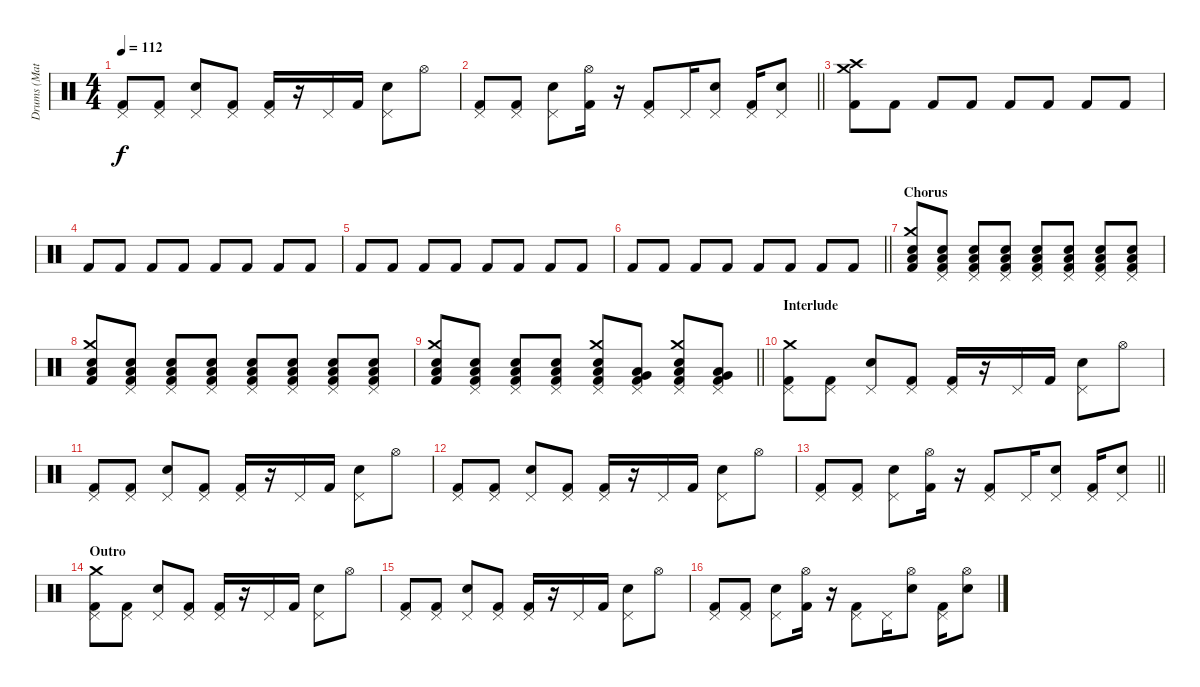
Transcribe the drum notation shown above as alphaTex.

\track ("Drums (Matt)" "Drums (Mat") {instrument percussion}
\staff {score}
\articulation defaults
\ts (4 4)
\tempo 112
\clef neutral
\ks c
("Pedal Hi-Hat (hit)" "Kick (hit) 2").8{dy f} ("Pedal Hi-Hat (hit)" "Kick (hit) 2").8 ("Pedal Hi-Hat (hit)" "Electric Snare (hit)").8 ("Pedal Hi-Hat (hit)" "Kick (hit) 2").8 ("Pedal Hi-Hat (hit)" "Kick (hit) 2").16 r.16 "Pedal Hi-Hat (hit)".16 "Kick (hit) 2".16 ("Pedal Hi-Hat (hit)" "Electric Snare (hit)").8 "Hi-Hat (open)".8 |
\barLineRight lightlight
("Pedal Hi-Hat (hit)" "Kick (hit) 2").8 ("Pedal Hi-Hat (hit)" "Kick (hit) 2").8 ("Pedal Hi-Hat (hit)" "Electric Snare (hit)").8 ("Hi-Hat (open)" "Kick (hit) 2").16 r.16 ("Pedal Hi-Hat (hit)" "Kick (hit) 2").8 "Pedal Hi-Hat (hit)".16 ("Pedal Hi-Hat (hit)" "Electric Snare (hit)").8 ("Pedal Hi-Hat (hit)" "Kick (hit) 2").16 ("Pedal Hi-Hat (hit)" "Electric Snare (hit)").8 |
("Crash high (hit)" "Crash medium (hit)" "Kick (hit) 2").8 "Kick (hit) 2".8 "Kick (hit) 2".8 "Kick (hit) 2".8 "Kick (hit) 2".8 "Kick (hit) 2".8 "Kick (hit) 2".8 "Kick (hit) 2".8 |
"Kick (hit) 2".8 "Kick (hit) 2".8 "Kick (hit) 2".8 "Kick (hit) 2".8 "Kick (hit) 2".8 "Kick (hit) 2".8 "Kick (hit) 2".8 "Kick (hit) 2".8 |
"Kick (hit) 2".8 "Kick (hit) 2".8 "Kick (hit) 2".8 "Kick (hit) 2".8 "Kick (hit) 2".8 "Kick (hit) 2".8 "Kick (hit) 2".8 "Kick (hit) 2".8 |
\barLineRight lightlight "Kick (hit) 2".8 "Kick (hit) 2".8 "Kick (hit) 2".8 "Kick (hit) 2".8 "Kick (hit) 2".8 "Kick (hit) 2".8 "Kick (hit) 2".8 "Kick (hit) 2".8
|
\section ("" "Chorus")
("Crash medium (hit)" "Low Floor Tom (hit)" "Electric Snare (hit)" "Kick (hit) 2").8 ("Pedal Hi-Hat (hit)" "Low Floor Tom (hit)" "Electric Snare (hit)" "Kick (hit) 2").8 ("Pedal Hi-Hat (hit)" "Low Floor Tom (hit)" "Electric Snare (hit)" "Kick (hit) 2").8 ("Pedal Hi-Hat (hit)" "Low Floor Tom (hit)" "Electric Snare (hit)" "Kick (hit) 2").8 ("Pedal Hi-Hat (hit)" "Low Floor Tom (hit)" "Electric Snare (hit)" "Kick (hit) 2").8 ("Pedal Hi-Hat (hit)" "Low Floor Tom (hit)" "Electric Snare (hit)" "Kick (hit) 2").8 ("Pedal Hi-Hat (hit)" "Low Floor Tom (hit)" "Electric Snare (hit)" "Kick (hit) 2").8 ("Pedal Hi-Hat (hit)" "Low Floor Tom (hit)" "Electric Snare (hit)" "Kick (hit) 2").8 |
("Crash medium (hit)" "Low Floor Tom (hit)" "Electric Snare (hit)" "Kick (hit) 2").8 ("Pedal Hi-Hat (hit)" "Low Floor Tom (hit)" "Electric Snare (hit)" "Kick (hit) 2").8 ("Pedal Hi-Hat (hit)" "Low Floor Tom (hit)" "Electric Snare (hit)" "Kick (hit) 2").8 ("Pedal Hi-Hat (hit)" "Low Floor Tom (hit)" "Electric Snare (hit)" "Kick (hit) 2").8 ("Pedal Hi-Hat (hit)" "Low Floor Tom (hit)" "Electric Snare (hit)" "Kick (hit) 2").8 ("Pedal Hi-Hat (hit)" "Low Floor Tom (hit)" "Electric Snare (hit)" "Kick (hit) 2").8 ("Pedal Hi-Hat (hit)" "Low Floor Tom (hit)" "Electric Snare (hit)" "Kick (hit) 2").8 ("Pedal Hi-Hat (hit)" "Low Floor Tom (hit)" "Electric Snare (hit)" "Kick (hit) 2").8 |
\barLineRight lightlight
("Crash medium (hit)" "Low Floor Tom (hit)" "Electric Snare (hit)" "Kick (hit) 2").8 ("Pedal Hi-Hat (hit)" "Low Floor Tom (hit)" "Electric Snare (hit)" "Kick (hit) 2").8 ("Pedal Hi-Hat (hit)" "Low Floor Tom (hit)" "Electric Snare (hit)" "Kick (hit) 2").8 ("Pedal Hi-Hat (hit)" "Low Floor Tom (hit)" "Electric Snare (hit)" "Kick (hit) 2").8 ("Crash medium (hit)" "Pedal Hi-Hat (hit)" "Low Floor Tom (hit)" "Electric Snare (hit)" "Kick (hit) 2").8 ("Pedal Hi-Hat (hit)" "Low Floor Tom (hit)" "Very Low Tom (hit)" "Kick (hit) 2").8 ("Crash medium (hit)" "Pedal Hi-Hat (hit)" "Low Floor Tom (hit)" "Electric Snare (hit)" "Kick (hit) 2").8 ("Pedal Hi-Hat (hit)" "Low Floor Tom (hit)" "Very Low Tom (hit)" "Kick (hit) 2").8 |
\section ("" "Interlude")
("Crash medium (hit)" "Pedal Hi-Hat (hit)" "Kick (hit) 2").8 ("Pedal Hi-Hat (hit)" "Kick (hit) 2").8 ("Pedal Hi-Hat (hit)" "Electric Snare (hit)").8 ("Pedal Hi-Hat (hit)" "Kick (hit) 2").8 ("Pedal Hi-Hat (hit)" "Kick (hit) 2").16 r.16 "Pedal Hi-Hat (hit)".16 "Kick (hit) 2".16 ("Pedal Hi-Hat (hit)" "Electric Snare (hit)").8 "Hi-Hat (open)".8 |
("Pedal Hi-Hat (hit)" "Kick (hit) 2").8 ("Pedal Hi-Hat (hit)" "Kick (hit) 2").8 ("Pedal Hi-Hat (hit)" "Electric Snare (hit)").8 ("Pedal Hi-Hat (hit)" "Kick (hit) 2").8 ("Pedal Hi-Hat (hit)" "Kick (hit) 2").16 r.16 "Pedal Hi-Hat (hit)".16 "Kick (hit) 2".16 ("Pedal Hi-Hat (hit)" "Electric Snare (hit)").8 "Hi-Hat (open)".8 |
("Pedal Hi-Hat (hit)" "Kick (hit) 2").8 ("Pedal Hi-Hat (hit)" "Kick (hit) 2").8 ("Pedal Hi-Hat (hit)" "Electric Snare (hit)").8 ("Pedal Hi-Hat (hit)" "Kick (hit) 2").8 ("Pedal Hi-Hat (hit)" "Kick (hit) 2").16 r.16 "Pedal Hi-Hat (hit)".16 "Kick (hit) 2".16 ("Pedal Hi-Hat (hit)" "Electric Snare (hit)").8 "Hi-Hat (open)".8 |
\barLineRight lightlight
("Pedal Hi-Hat (hit)" "Kick (hit) 2").8 ("Pedal Hi-Hat (hit)" "Kick (hit) 2").8 ("Pedal Hi-Hat (hit)" "Electric Snare (hit)").8 ("Hi-Hat (open)" "Kick (hit) 2").16 r.16 ("Pedal Hi-Hat (hit)" "Kick (hit) 2").8 "Pedal Hi-Hat (hit)".16 ("Pedal Hi-Hat (hit)" "Electric Snare (hit)").8 ("Pedal Hi-Hat (hit)" "Kick (hit) 2").16 ("Pedal Hi-Hat (hit)" "Electric Snare (hit)").8 |
\section ("" "Outro")
("Crash medium (hit)" "Pedal Hi-Hat (hit)" "Kick (hit) 2").8 ("Pedal Hi-Hat (hit)" "Kick (hit) 2").8 ("Pedal Hi-Hat (hit)" "Electric Snare (hit)").8 ("Pedal Hi-Hat (hit)" "Kick (hit) 2").8 ("Pedal Hi-Hat (hit)" "Kick (hit) 2").16 r.16 "Pedal Hi-Hat (hit)".16 "Kick (hit) 2".16 ("Pedal Hi-Hat (hit)" "Electric Snare (hit)").8 "Hi-Hat (open)".8 |
("Pedal Hi-Hat (hit)" "Kick (hit) 2").8 ("Pedal Hi-Hat (hit)" "Kick (hit) 2").8 ("Pedal Hi-Hat (hit)" "Electric Snare (hit)").8 ("Pedal Hi-Hat (hit)" "Kick (hit) 2").8 ("Pedal Hi-Hat (hit)" "Kick (hit) 2").16 r.16 "Pedal Hi-Hat (hit)".16 "Kick (hit) 2".16 ("Pedal Hi-Hat (hit)" "Electric Snare (hit)").8 "Hi-Hat (open)".8 |
("Pedal Hi-Hat (hit)" "Kick (hit) 2").8 ("Pedal Hi-Hat (hit)" "Kick (hit) 2").8 ("Pedal Hi-Hat (hit)" "Electric Snare (hit)").8 ("Hi-Hat (open)" "Kick (hit) 2").16 r.16 ("Pedal Hi-Hat (hit)" "Kick (hit) 2").8 "Pedal Hi-Hat (hit)".16 ("Hi-Hat (open)" "Electric Snare (hit)").8 ("Pedal Hi-Hat (hit)" "Kick (hit) 2").16 ("Hi-Hat (open)" "Electric Snare (hit)").8
